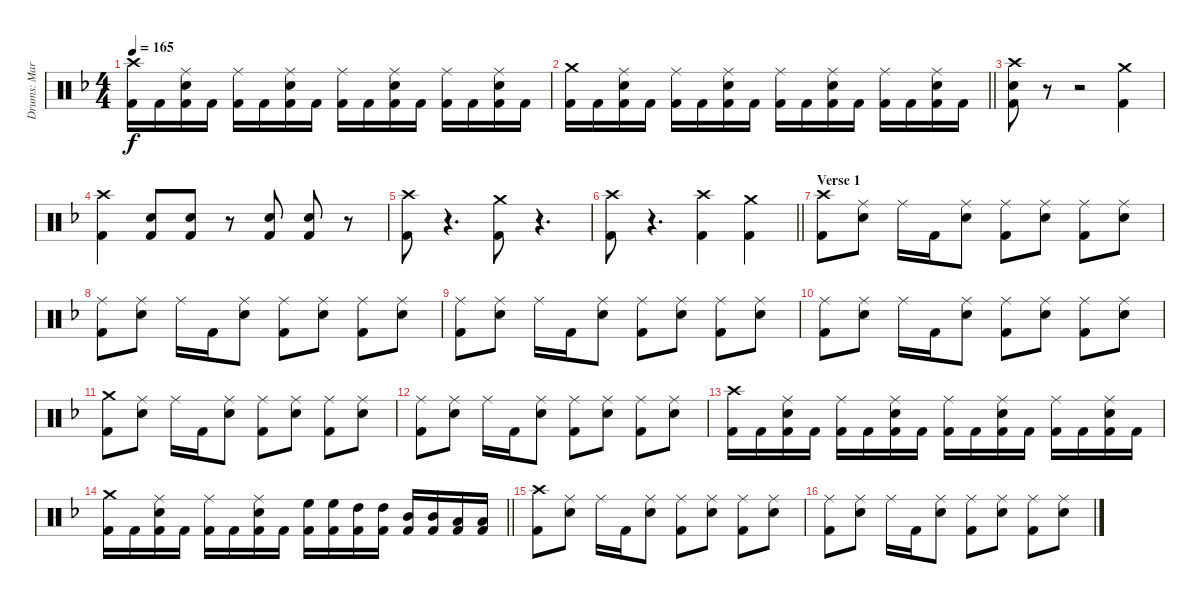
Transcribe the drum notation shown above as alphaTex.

\track ("Drums: Martin Herzinger" "Drums: Mar") {instrument percussion}
\staff {score}
\articulation defaults
\ts (4 4)
\tempo 165
\clef neutral
\ks dminor
("Crash high (hit)" "Kick (hit) 2").16{dy f} "Kick (hit) 2".16 ("Ride (middle)" "Snare (hit) 2" "Kick (hit) 2").16 "Kick (hit) 2".16 ("Ride (middle)" "Kick (hit) 2").16 "Kick (hit) 2".16 ("Ride (middle)" "Snare (hit) 2" "Kick (hit) 2").16 "Kick (hit) 2".16 ("Ride (middle)" "Kick (hit) 2").16 "Kick (hit) 2".16 ("Ride (middle)" "Snare (hit) 2" "Kick (hit) 2").16 "Kick (hit) 2".16 ("Ride (middle)" "Kick (hit) 2").16 "Kick (hit) 2".16 ("Ride (middle)" "Snare (hit) 2" "Kick (hit) 2").16 "Kick (hit) 2".16 |
\barLineRight lightlight
("Crash medium (hit)" "Kick (hit) 2").16 "Kick (hit) 2".16 ("Ride (middle)" "Snare (hit) 2" "Kick (hit) 2").16 "Kick (hit) 2".16 ("Ride (middle)" "Kick (hit) 2").16 "Kick (hit) 2".16 ("Ride (middle)" "Snare (hit) 2" "Kick (hit) 2").16 "Kick (hit) 2".16 ("Ride (middle)" "Kick (hit) 2").16 "Kick (hit) 2".16 ("Ride (middle)" "Snare (hit) 2" "Kick (hit) 2").16 "Kick (hit) 2".16 ("Ride (middle)" "Kick (hit) 2").16 "Kick (hit) 2".16 ("Ride (middle)" "Snare (hit) 2" "Kick (hit) 2").16 "Kick (hit) 2".16 |
("Crash high (hit)" "Snare (hit) 2" "Kick (hit) 2").8 r.8 r.2 ("Crash medium (hit)" "Kick (hit) 2").4 |
("Crash high (hit)" "Kick (hit) 2").4 ("Snare (hit) 2" "Kick (hit) 2").8 ("Snare (hit) 2" "Kick (hit) 2").8 r.8 ("Snare (hit) 2" "Kick (hit) 2").8 ("Snare (hit) 2" "Kick (hit) 2").8 r.8 |
("Crash high (hit)" "Kick (hit) 2").8 r.4{d} ("Crash medium (hit)" "Kick (hit) 2").8 r.4{d} |
\barLineRight lightlight
("Crash high (hit)" "Kick (hit) 2").8 r.4{d} ("Crash high (hit)" "Kick (hit) 2").4 ("Crash medium (hit)" "Kick (hit) 2").4 |
\section ("" "Verse 1")
("Crash high (hit)" "Kick (hit) 2").8 ("Ride (middle)" "Snare (hit) 2").8 "Ride (middle)".16 "Kick (hit) 2".16 ("Ride (middle)" "Snare (hit) 2").8 ("Ride (middle)" "Kick (hit) 2").8 ("Ride (middle)" "Snare (hit) 2").8 ("Ride (middle)" "Kick (hit) 2").8 ("Ride (middle)" "Snare (hit) 2").8 |
("Ride (middle)" "Kick (hit) 2").8 ("Ride (middle)" "Snare (hit) 2").8 "Ride (middle)".16 "Kick (hit) 2".16 ("Ride (middle)" "Snare (hit) 2").8 ("Ride (middle)" "Kick (hit) 2").8 ("Ride (middle)" "Snare (hit) 2").8 ("Ride (middle)" "Kick (hit) 2").8 ("Ride (middle)" "Snare (hit) 2").8 |
("Ride (middle)" "Kick (hit) 2").8 ("Ride (middle)" "Snare (hit) 2").8 "Ride (middle)".16 "Kick (hit) 2".16 ("Ride (middle)" "Snare (hit) 2").8 ("Ride (middle)" "Kick (hit) 2").8 ("Ride (middle)" "Snare (hit) 2").8 ("Ride (middle)" "Kick (hit) 2").8 ("Ride (middle)" "Snare (hit) 2").8 |
("Ride (middle)" "Kick (hit) 2").8 ("Ride (middle)" "Snare (hit) 2").8 "Ride (middle)".16 "Kick (hit) 2".16 ("Ride (middle)" "Snare (hit) 2").8 ("Ride (middle)" "Kick (hit) 2").8 ("Ride (middle)" "Snare (hit) 2").8 ("Ride (middle)" "Kick (hit) 2").8 ("Ride (middle)" "Snare (hit) 2").8 |
("Crash medium (hit)" "Kick (hit) 2").8 ("Ride (middle)" "Snare (hit) 2").8 "Ride (middle)".16 "Kick (hit) 2".16 ("Ride (middle)" "Snare (hit) 2").8 ("Ride (middle)" "Kick (hit) 2").8 ("Ride (middle)" "Snare (hit) 2").8 ("Ride (middle)" "Kick (hit) 2").8 ("Ride (middle)" "Snare (hit) 2").8 |
("Ride (middle)" "Kick (hit) 2").8 ("Ride (middle)" "Snare (hit) 2").8 "Ride (middle)".16 "Kick (hit) 2".16 ("Ride (middle)" "Snare (hit) 2").8 ("Ride (middle)" "Kick (hit) 2").8 ("Ride (middle)" "Snare (hit) 2").8 ("Ride (middle)" "Kick (hit) 2").8 ("Ride (middle)" "Snare (hit) 2").8 |
("Crash high (hit)" "Kick (hit) 2").16 "Kick (hit) 2".16 ("Ride (middle)" "Snare (hit) 2" "Kick (hit) 2").16 "Kick (hit) 2".16 ("Ride (middle)" "Kick (hit) 2").16 "Kick (hit) 2".16 ("Ride (middle)" "Snare (hit) 2" "Kick (hit) 2").16 "Kick (hit) 2".16 ("Ride (middle)" "Kick (hit) 2").16 "Kick (hit) 2".16 ("Ride (middle)" "Snare (hit) 2" "Kick (hit) 2").16 "Kick (hit) 2".16 ("Ride (middle)" "Kick (hit) 2").16 "Kick (hit) 2".16 ("Ride (middle)" "Snare (hit) 2" "Kick (hit) 2").16 "Kick (hit) 2".16 |
\barLineRight lightlight
("Crash medium (hit)" "Kick (hit) 2").16 "Kick (hit) 2".16 ("Ride (middle)" "Snare (hit) 2" "Kick (hit) 2").16 "Kick (hit) 2".16 ("Ride (middle)" "Kick (hit) 2").16 "Kick (hit) 2".16 ("Ride (middle)" "Snare (hit) 2" "Kick (hit) 2").16 "Kick (hit) 2".16 ("High Floor Tom (hit)" "Kick (hit) 2").16 ("High Floor Tom (hit)" "Kick (hit) 2").16 ("High Tom (hit)" "Kick (hit) 2").16 ("High Tom (hit)" "Kick (hit) 2").16 ("Mid Tom (hit)" "Kick (hit) 2").16 ("Mid Tom (hit)" "Kick (hit) 2").16 ("Low Tom (hit)" "Kick (hit) 2").16 ("Low Tom (hit)" "Kick (hit) 2").16 |
("Crash high (hit)" "Kick (hit) 2").8 ("Ride (middle)" "Snare (hit) 2").8 "Ride (middle)".16 "Kick (hit) 2".16 ("Ride (middle)" "Snare (hit) 2").8 ("Ride (middle)" "Kick (hit) 2").8 ("Ride (middle)" "Snare (hit) 2").8 ("Ride (middle)" "Kick (hit) 2").8 ("Ride (middle)" "Snare (hit) 2").8 |
("Ride (middle)" "Kick (hit) 2").8 ("Ride (middle)" "Snare (hit) 2").8 "Ride (middle)".16 "Kick (hit) 2".16 ("Ride (middle)" "Snare (hit) 2").8 ("Ride (middle)" "Kick (hit) 2").8 ("Ride (middle)" "Snare (hit) 2").8 ("Ride (middle)" "Kick (hit) 2").8 ("Ride (middle)" "Snare (hit) 2").8
